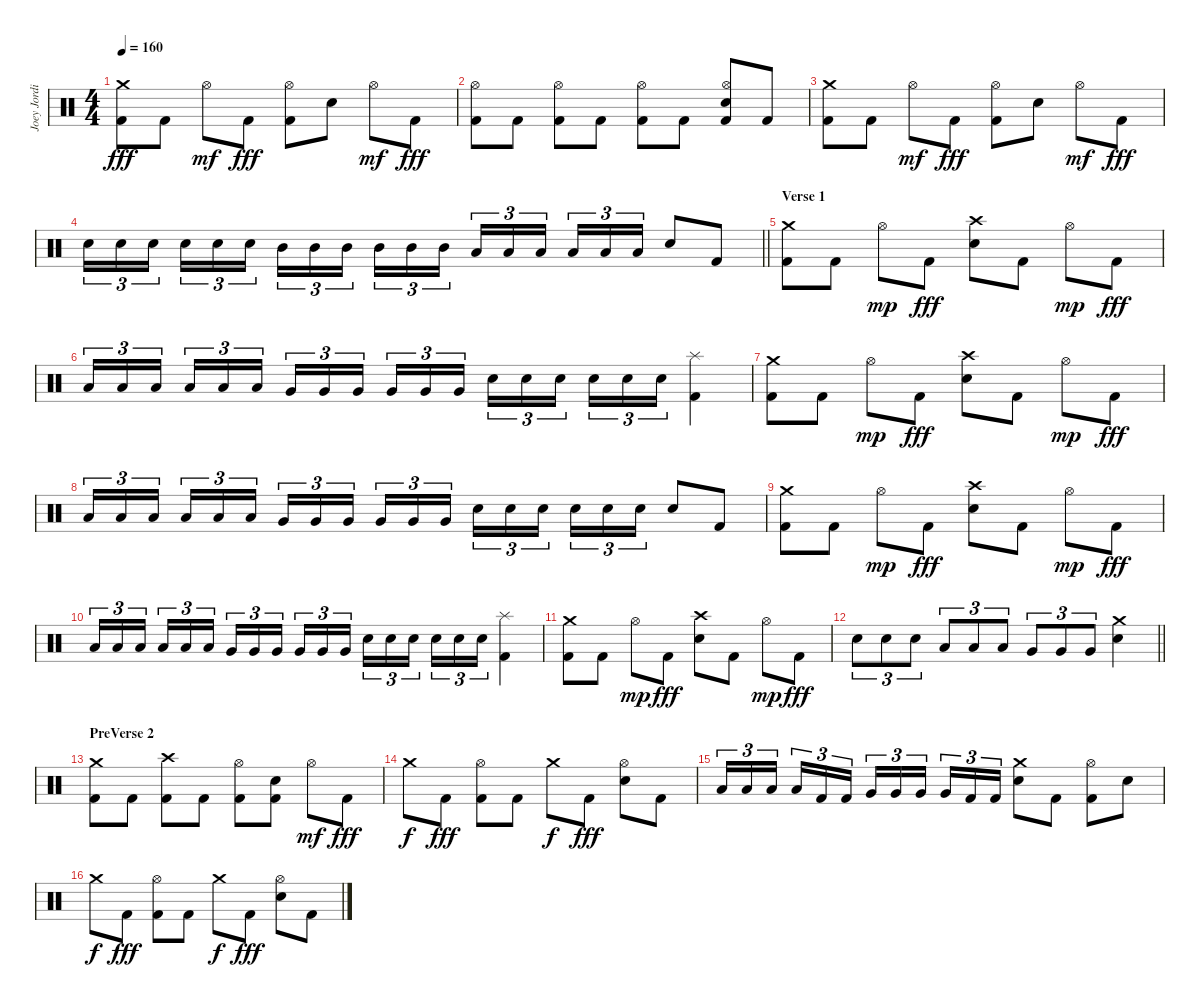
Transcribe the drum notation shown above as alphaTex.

\track ("Joey Jordison" "Joey Jordi") {instrument percussion}
\staff {score}
\articulation defaults
\ts (4 4)
\tempo 160
\clef neutral
\ks c
("Crash medium (hit)" "Kick (hit) 2").8{dy fff} "Kick (hit) 2".8 "Hi-Hat (open)".8{dy mf} "Kick (hit) 2".8{dy fff} ("Hi-Hat (open)" "Kick (hit) 2").8 "Electric Snare (hit)".8 "Hi-Hat (open)".8{dy mf} "Kick (hit) 2".8{dy fff} |
("Hi-Hat (open)" "Kick (hit) 2").8 "Kick (hit) 2".8 ("Hi-Hat (open)" "Kick (hit) 2").8 "Kick (hit) 2".8 ("Hi-Hat (open)" "Kick (hit) 2").8 "Kick (hit) 2".8 ("Hi-Hat (open)" "Electric Snare (hit)" "Kick (hit) 2").8 "Kick (hit) 2".8 |
("Crash medium (hit)" "Kick (hit) 2").8 "Kick (hit) 2".8 "Hi-Hat (open)".8{dy mf} "Kick (hit) 2".8{dy fff} ("Hi-Hat (open)" "Kick (hit) 2").8 "Electric Snare (hit)".8 "Hi-Hat (open)".8{dy mf} "Kick (hit) 2".8{dy fff} |
\barLineRight lightlight "Electric Snare (hit)".16{tu (3 2)} "Electric Snare (hit)".16{tu (3 2)} "Electric Snare (hit)".16{tu (3 2) beam splitsecondary} "Electric Snare (hit)".16{tu (3 2)} "Electric Snare (hit)".16{tu (3 2)} "Electric Snare (hit)".16{tu (3 2)} "Mid Tom (hit)".16{tu (3 2)} "Mid Tom (hit)".16{tu (3 2)} "Mid Tom (hit)".16{tu (3 2) beam splitsecondary} "Mid Tom (hit)".16{tu (3 2)} "Mid Tom (hit)".16{tu (3 2)} "Mid Tom (hit)".16{tu (3 2)} "Low Tom (hit)".16{tu (3 2)} "Low Tom (hit)".16{tu (3 2)} "Low Tom (hit)".16{tu (3 2) beam splitsecondary} "Low Tom (hit)".16{tu (3 2)} "Low Tom (hit)".16{tu (3 2)} "Low Tom (hit)".16{tu (3 2)} "Electric Snare (hit)".8 "Kick (hit) 2".8
|
\section ("" "Verse 1")
("Crash medium (hit)" "Kick (hit) 2").8 "Kick (hit) 2".8 "Hi-Hat (open)".8{dy mp} "Kick (hit) 2".8{dy fff} ("Crash high (hit)" "Electric Snare (hit)").8 "Kick (hit) 2".8 "Hi-Hat (open)".8{dy mp} "Kick (hit) 2".8{dy fff} |
"Low Tom (hit)".16{tu (3 2)} "Low Tom (hit)".16{tu (3 2)} "Low Tom (hit)".16{tu (3 2) beam splitsecondary} "Low Tom (hit)".16{tu (3 2)} "Low Tom (hit)".16{tu (3 2)} "Low Tom (hit)".16{tu (3 2)} "Very Low Tom (hit)".16{tu (3 2)} "Very Low Tom (hit)".16{tu (3 2)} "Very Low Tom (hit)".16{tu (3 2) beam splitsecondary} "Very Low Tom (hit)".16{tu (3 2)} "Very Low Tom (hit)".16{tu (3 2)} "Very Low Tom (hit)".16{tu (3 2)} "Electric Snare (hit)".16{tu (3 2)} "Electric Snare (hit)".16{tu (3 2)} "Electric Snare (hit)".16{tu (3 2) beam splitsecondary} "Electric Snare (hit)".16{tu (3 2)} "Electric Snare (hit)".16{tu (3 2)} "Electric Snare (hit)".16{tu (3 2)} ("Splash (hit)" "Kick (hit) 2").4 |
("Crash medium (hit)" "Kick (hit) 2").8 "Kick (hit) 2".8 "Hi-Hat (open)".8{dy mp} "Kick (hit) 2".8{dy fff} ("Crash high (hit)" "Electric Snare (hit)").8 "Kick (hit) 2".8 "Hi-Hat (open)".8{dy mp} "Kick (hit) 2".8{dy fff} |
"Low Tom (hit)".16{tu (3 2)} "Low Tom (hit)".16{tu (3 2)} "Low Tom (hit)".16{tu (3 2) beam splitsecondary} "Low Tom (hit)".16{tu (3 2)} "Low Tom (hit)".16{tu (3 2)} "Low Tom (hit)".16{tu (3 2)} "Very Low Tom (hit)".16{tu (3 2)} "Very Low Tom (hit)".16{tu (3 2)} "Very Low Tom (hit)".16{tu (3 2) beam splitsecondary} "Very Low Tom (hit)".16{tu (3 2)} "Very Low Tom (hit)".16{tu (3 2)} "Very Low Tom (hit)".16{tu (3 2)} "Electric Snare (hit)".16{tu (3 2)} "Electric Snare (hit)".16{tu (3 2)} "Electric Snare (hit)".16{tu (3 2) beam splitsecondary} "Electric Snare (hit)".16{tu (3 2)} "Electric Snare (hit)".16{tu (3 2)} "Electric Snare (hit)".16{tu (3 2)} "Electric Snare (hit)".8 "Kick (hit) 2".8 |
("Crash medium (hit)" "Kick (hit) 2").8 "Kick (hit) 2".8 "Hi-Hat (open)".8{dy mp} "Kick (hit) 2".8{dy fff} ("Crash high (hit)" "Electric Snare (hit)").8 "Kick (hit) 2".8 "Hi-Hat (open)".8{dy mp} "Kick (hit) 2".8{dy fff} |
"Low Tom (hit)".16{tu (3 2)} "Low Tom (hit)".16{tu (3 2)} "Low Tom (hit)".16{tu (3 2) beam splitsecondary} "Low Tom (hit)".16{tu (3 2)} "Low Tom (hit)".16{tu (3 2)} "Low Tom (hit)".16{tu (3 2)} "Very Low Tom (hit)".16{tu (3 2)} "Very Low Tom (hit)".16{tu (3 2)} "Very Low Tom (hit)".16{tu (3 2) beam splitsecondary} "Very Low Tom (hit)".16{tu (3 2)} "Very Low Tom (hit)".16{tu (3 2)} "Very Low Tom (hit)".16{tu (3 2)} "Electric Snare (hit)".16{tu (3 2)} "Electric Snare (hit)".16{tu (3 2)} "Electric Snare (hit)".16{tu (3 2) beam splitsecondary} "Electric Snare (hit)".16{tu (3 2)} "Electric Snare (hit)".16{tu (3 2)} "Electric Snare (hit)".16{tu (3 2)} ("Splash (hit)" "Kick (hit) 2").4 |
("Crash medium (hit)" "Kick (hit) 2").8 "Kick (hit) 2".8 "Hi-Hat (open)".8{dy mp} "Kick (hit) 2".8{dy fff} ("Crash high (hit)" "Electric Snare (hit)").8 "Kick (hit) 2".8 "Hi-Hat (open)".8{dy mp} "Kick (hit) 2".8{dy fff} |
\barLineRight lightlight "Electric Snare (hit)".8{tu (3 2)} "Electric Snare (hit)".8{tu (3 2)} "Electric Snare (hit)".8{tu (3 2)} "Low Tom (hit)".8{tu (3 2)} "Low Tom (hit)".8{tu (3 2)} "Low Tom (hit)".8{tu (3 2)} "Very Low Tom (hit)".8{tu (3 2)} "Very Low Tom (hit)".8{tu (3 2)} "Very Low Tom (hit)".8{tu (3 2)}
("Crash medium (hit)" "Electric Snare (hit)").4 |
\section ("" "PreVerse 2")
("Crash medium (hit)" "Kick (hit) 2").8 "Kick (hit) 2".8 ("Crash high (hit)" "Kick (hit) 2").8 "Kick (hit) 2".8 ("Hi-Hat (open)" "Kick (hit) 2").8 ("Electric Snare (hit)" "Kick (hit) 2").8 "Hi-Hat (open)".8{dy mf} "Kick (hit) 2".8{dy fff} |
"Crash medium (hit)".8{dy f} "Kick (hit) 2".8{dy fff} ("Hi-Hat (open)" "Kick (hit) 2").8 "Kick (hit) 2".8 "Crash medium (hit)".8{dy f} "Kick (hit) 2".8{dy fff} ("Hi-Hat (open)" "Electric Snare (hit)").8 "Kick (hit) 2".8 |
"Low Tom (hit)".16{tu (3 2)} "Low Tom (hit)".16{tu (3 2)} "Low Tom (hit)".16{tu (3 2) beam splitsecondary} "Low Tom (hit)".16{tu (3 2)} "Kick (hit) 2".16{tu (3 2)} "Kick (hit) 2".16{tu (3 2)} "Very Low Tom (hit)".16{tu (3 2)} "Very Low Tom (hit)".16{tu (3 2)} "Very Low Tom (hit)".16{tu (3 2) beam splitsecondary} "Very Low Tom (hit)".16{tu (3 2)} "Kick (hit) 2".16{tu (3 2)} "Kick (hit) 2".16{tu (3 2)} ("Crash medium (hit)" "Electric Snare (hit)").8 "Kick (hit) 2".8 ("Hi-Hat (open)" "Kick (hit) 2").8 "Electric Snare (hit)".8 |
"Crash medium (hit)".8{dy f} "Kick (hit) 2".8{dy fff} ("Hi-Hat (open)" "Kick (hit) 2").8 "Kick (hit) 2".8 "Crash medium (hit)".8{dy f} "Kick (hit) 2".8{dy fff} ("Hi-Hat (open)" "Electric Snare (hit)").8 "Kick (hit) 2".8
